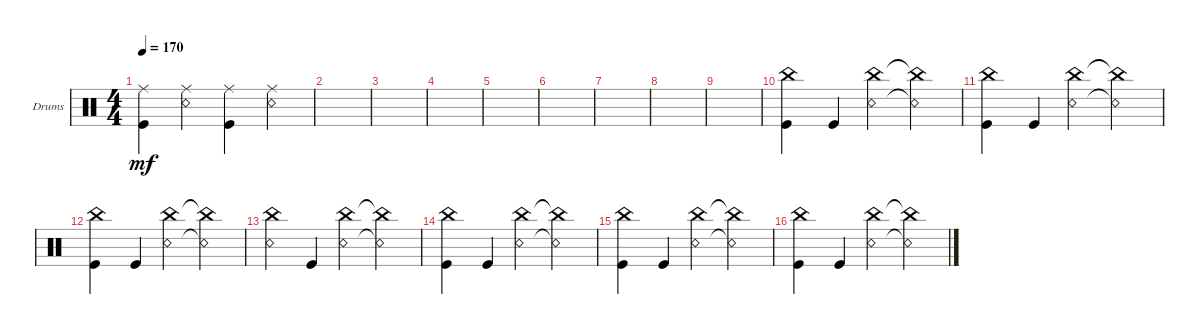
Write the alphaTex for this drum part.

\defaultSystemsLayout 4
\bracketExtendMode groupsimilarinstruments
\firstSystemTrackNameOrientation horizontal
\otherSystemsTrackNameOrientation horizontal
\track ("Drumkit" "Drums") {instrument percussion}
\staff {score}
\articulation defaults
\ts (4 4)
\tempo 170
\clef neutral
\ks c
("Kick (hit)" "Ride (middle)").4{dy mf} ("Snare (rim shot)" "Ride (middle)").4 ("Kick (hit)" "Ride (middle)").4 ("Snare (rim shot)" "Ride (middle)").4 |
|
|
|
|
|
|
|
|
("Kick (hit)" "China (hit)").4 "Kick (hit)".4 ("Snare (rim shot)" "China (hit)").4 ("Snare (rim shot)"{t} "China (hit)"{t}).4 |
("Kick (hit)" "China (hit)").4 "Kick (hit)".4 ("Snare (rim shot)" "China (hit)").4 ("Snare (rim shot)"{t} "China (hit)"{t}).4 |
("Kick (hit)" "China (hit)").4 "Kick (hit)".4 ("Snare (rim shot)" "China (hit)").4 ("Snare (rim shot)"{t} "China (hit)"{t}).4 |
("China (hit)" "Snare (rim shot)").4 "Kick (hit)".4 ("Snare (rim shot)" "China (hit)").4 ("Snare (rim shot)"{t} "China (hit)"{t}).4 |
("Kick (hit)" "China (hit)").4 "Kick (hit)".4 ("Snare (rim shot)" "China (hit)").4 ("Snare (rim shot)"{t} "China (hit)"{t}).4 |
("Kick (hit)" "China (hit)").4 "Kick (hit)".4 ("Snare (rim shot)" "China (hit)").4 ("Snare (rim shot)"{t} "China (hit)"{t}).4 |
("Kick (hit)" "China (hit)").4 "Kick (hit)".4 ("Snare (rim shot)" "China (hit)").4 ("Snare (rim shot)"{t} "China (hit)"{t}).4
